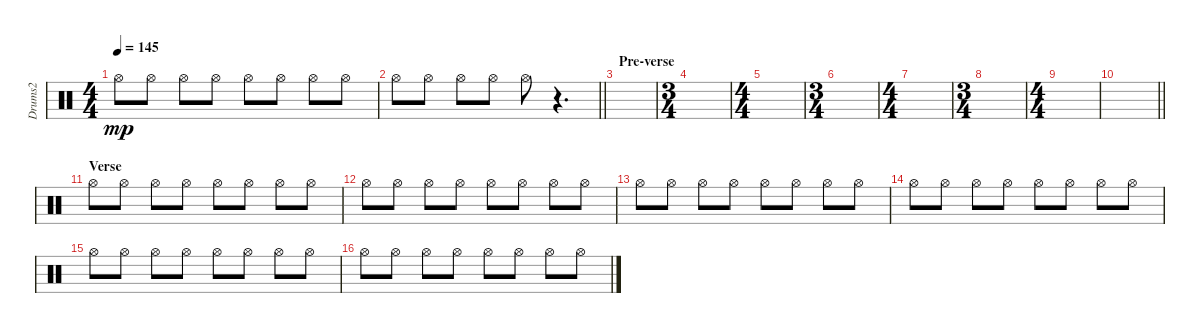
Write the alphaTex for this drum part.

\track ("Drums2" "Drums2") {instrument percussion}
\staff {score}
\articulation defaults
\ts (4 4)
\tempo 145
\clef neutral
\ks c "Hi-Hat (open)".8{dy mp} "Hi-Hat (open)".8 "Hi-Hat (open)".8 "Hi-Hat (open)".8 "Hi-Hat (open)".8 "Hi-Hat (open)".8 "Hi-Hat (open)".8 "Hi-Hat (open)".8
|
\barLineRight lightlight "Hi-Hat (open)".8 "Hi-Hat (open)".8 "Hi-Hat (open)".8 "Hi-Hat (open)".8 "Hi-Hat (open)".8
r.4{d} |
\section ("" "Pre-verse")
|
\ts (3 4)
|
\ts (4 4)
|
\ts (3 4)
|
\ts (4 4)
|
\ts (3 4)
|
\ts (4 4)
|
\barLineRight lightlight
|
\section ("" "Verse")
"Hi-Hat (open)".8 "Hi-Hat (open)".8 "Hi-Hat (open)".8 "Hi-Hat (open)".8 "Hi-Hat (open)".8 "Hi-Hat (open)".8 "Hi-Hat (open)".8 "Hi-Hat (open)".8 |
"Hi-Hat (open)".8 "Hi-Hat (open)".8 "Hi-Hat (open)".8 "Hi-Hat (open)".8 "Hi-Hat (open)".8 "Hi-Hat (open)".8 "Hi-Hat (open)".8 "Hi-Hat (open)".8 |
"Hi-Hat (open)".8 "Hi-Hat (open)".8 "Hi-Hat (open)".8 "Hi-Hat (open)".8 "Hi-Hat (open)".8 "Hi-Hat (open)".8 "Hi-Hat (open)".8 "Hi-Hat (open)".8 |
"Hi-Hat (open)".8 "Hi-Hat (open)".8 "Hi-Hat (open)".8 "Hi-Hat (open)".8 "Hi-Hat (open)".8 "Hi-Hat (open)".8 "Hi-Hat (open)".8 "Hi-Hat (open)".8 |
"Hi-Hat (open)".8 "Hi-Hat (open)".8 "Hi-Hat (open)".8 "Hi-Hat (open)".8 "Hi-Hat (open)".8 "Hi-Hat (open)".8 "Hi-Hat (open)".8 "Hi-Hat (open)".8 |
"Hi-Hat (open)".8 "Hi-Hat (open)".8 "Hi-Hat (open)".8 "Hi-Hat (open)".8 "Hi-Hat (open)".8 "Hi-Hat (open)".8 "Hi-Hat (open)".8 "Hi-Hat (open)".8
